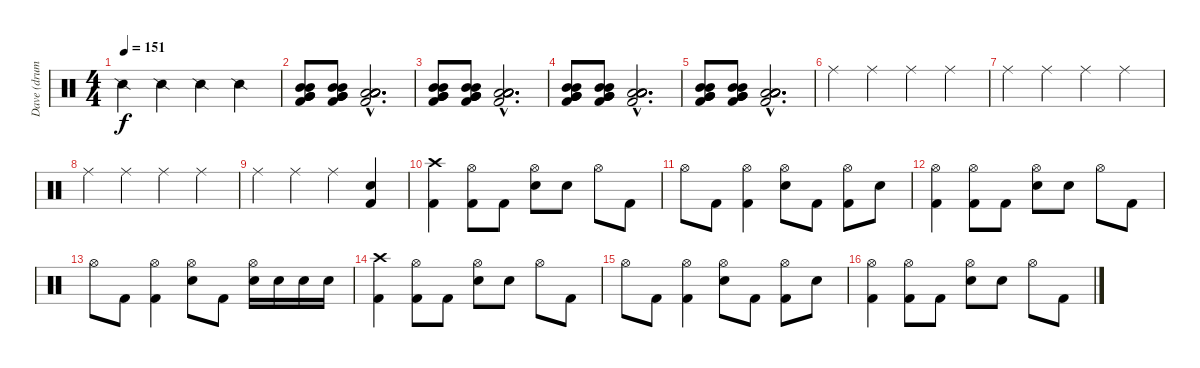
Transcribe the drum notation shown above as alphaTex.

\track ("Dave (drums)" "Dave (drum") {instrument percussion}
\staff {score}
\articulation defaults
\ts (4 4)
\tempo 151
\clef neutral
\ks c "Snare (side stick) 2".4{dy f} "Snare (side stick) 2".4 "Snare (side stick) 2".4 "Snare (side stick) 2".4
|
("Very Low Tom (hit)" "Very Low Tom (hit)" "Very Low Tom (hit)" "Mid Tom (hit)" "Mid Tom (hit)" "Kick (hit) 2").8 ("Very Low Tom (hit)" "Very Low Tom (hit)" "Very Low Tom (hit)" "Mid Tom (hit)" "Mid Tom (hit)" "Kick (hit) 2").8 ("Low Floor Tom (hit)"{hac} "Low Floor Tom (hit)"{hac} "Low Floor Tom (hit)"{hac} "Low Tom (hit)"{hac} "Low Tom (hit)"{hac} "Kick (hit) 2"{hac}).2{d} |
("Very Low Tom (hit)" "Very Low Tom (hit)" "Very Low Tom (hit)" "Mid Tom (hit)" "Mid Tom (hit)" "Kick (hit) 2").8 ("Very Low Tom (hit)" "Very Low Tom (hit)" "Very Low Tom (hit)" "Mid Tom (hit)" "Mid Tom (hit)" "Kick (hit) 2").8 ("Low Floor Tom (hit)"{hac} "Low Floor Tom (hit)"{hac} "Low Floor Tom (hit)"{hac} "Low Tom (hit)"{hac} "Low Tom (hit)"{hac} "Kick (hit) 2"{hac}).2{d} |
("Very Low Tom (hit)" "Very Low Tom (hit)" "Very Low Tom (hit)" "Mid Tom (hit)" "Mid Tom (hit)" "Kick (hit) 2").8 ("Very Low Tom (hit)" "Very Low Tom (hit)" "Very Low Tom (hit)" "Mid Tom (hit)" "Mid Tom (hit)" "Kick (hit) 2").8 ("Low Floor Tom (hit)"{hac} "Low Floor Tom (hit)"{hac} "Low Floor Tom (hit)"{hac} "Low Tom (hit)"{hac} "Low Tom (hit)"{hac} "Kick (hit) 2"{hac}).2{d} |
("Very Low Tom (hit)" "Very Low Tom (hit)" "Very Low Tom (hit)" "Mid Tom (hit)" "Mid Tom (hit)" "Kick (hit) 2").8 ("Very Low Tom (hit)" "Very Low Tom (hit)" "Very Low Tom (hit)" "Mid Tom (hit)" "Mid Tom (hit)" "Kick (hit) 2").8 ("Low Floor Tom (hit)"{hac} "Low Floor Tom (hit)"{hac} "Low Floor Tom (hit)"{hac} "Low Tom (hit)"{hac} "Low Tom (hit)"{hac} "Kick (hit) 2"{hac}).2{d} |
"Ride (middle)".4 "Ride (middle)".4 "Ride (middle)".4 "Ride (middle)".4 |
"Ride (middle)".4 "Ride (middle)".4 "Ride (middle)".4 "Ride (middle)".4 |
"Ride (middle)".4 "Ride (middle)".4 "Ride (middle)".4 "Ride (middle)".4 |
"Ride (middle)".4 "Ride (middle)".4 "Ride (middle)".4 ("Kick (hit) 2" "Electric Snare (hit)").4 |
("Crash high (hit)" "Kick (hit) 2").4 ("Hi-Hat (open)" "Kick (hit) 2").8 "Kick (hit) 2".8 ("Hi-Hat (open)" "Electric Snare (hit)").8 "Electric Snare (hit)".8 "Hi-Hat (open)".8 "Kick (hit) 2".8 |
"Hi-Hat (open)".8 "Kick (hit) 2".8 ("Hi-Hat (open)" "Kick (hit) 2").4 ("Hi-Hat (open)" "Electric Snare (hit)").8 "Kick (hit) 2".8 ("Hi-Hat (open)" "Kick (hit) 2").8 "Electric Snare (hit)".8 |
("Hi-Hat (open)" "Kick (hit) 2").4 ("Hi-Hat (open)" "Kick (hit) 2").8 "Kick (hit) 2".8 ("Hi-Hat (open)" "Electric Snare (hit)").8 "Electric Snare (hit)".8 "Hi-Hat (open)".8 "Kick (hit) 2".8 |
"Hi-Hat (open)".8 "Kick (hit) 2".8 ("Hi-Hat (open)" "Kick (hit) 2").4 ("Hi-Hat (open)" "Electric Snare (hit)").8 "Kick (hit) 2".8 ("Hi-Hat (open)" "Electric Snare (hit)").16 "Electric Snare (hit)".16 "Electric Snare (hit)".16 "Electric Snare (hit)".16 |
("Crash high (hit)" "Kick (hit) 2").4 ("Hi-Hat (open)" "Kick (hit) 2").8 "Kick (hit) 2".8 ("Hi-Hat (open)" "Electric Snare (hit)").8 "Electric Snare (hit)".8 "Hi-Hat (open)".8 "Kick (hit) 2".8 |
"Hi-Hat (open)".8 "Kick (hit) 2".8 ("Hi-Hat (open)" "Kick (hit) 2").4 ("Hi-Hat (open)" "Electric Snare (hit)").8 "Kick (hit) 2".8 ("Hi-Hat (open)" "Kick (hit) 2").8 "Electric Snare (hit)".8 |
("Hi-Hat (open)" "Kick (hit) 2").4 ("Hi-Hat (open)" "Kick (hit) 2").8 "Kick (hit) 2".8 ("Hi-Hat (open)" "Electric Snare (hit)").8 "Electric Snare (hit)".8 "Hi-Hat (open)".8 "Kick (hit) 2".8
